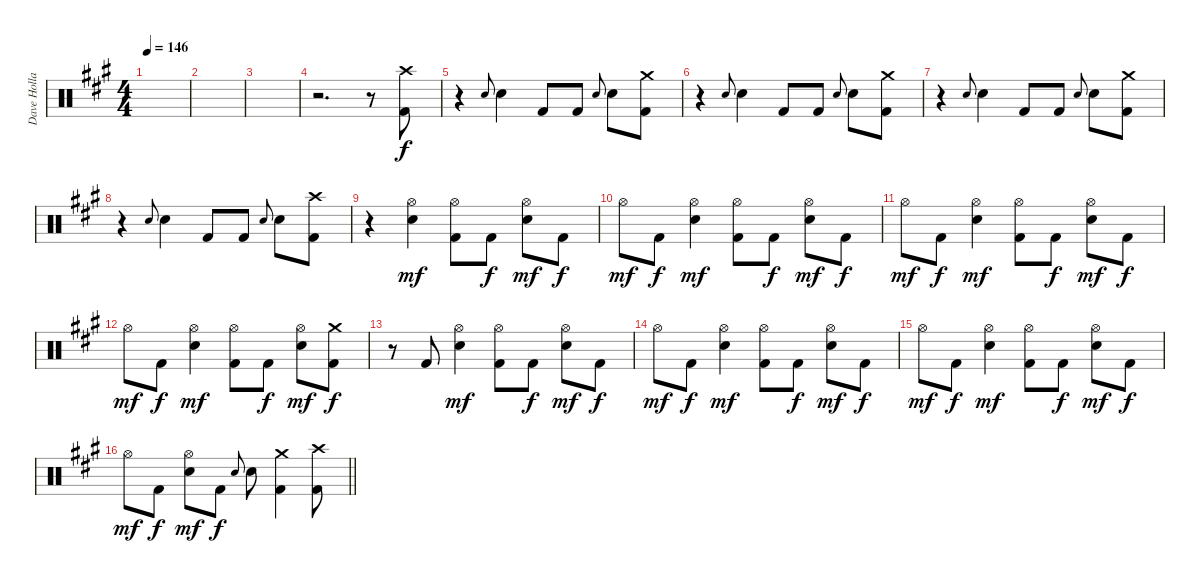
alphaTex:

\track ("Dave Holland" "Dave Holla") {instrument percussion}
\staff {score}
\articulation defaults
\ts (4 4)
\tempo 146
\clef neutral
\ks a
|
|
|
r.2{d} r.8 ("Crash high (hit)" "Kick (hit) 2").8 |
r.4 "Electric Snare (hit)".8{gr onbeat} "Electric Snare (hit)".4 "Kick (hit) 2".8 "Kick (hit) 2".8 "Electric Snare (hit)".8{gr onbeat} "Electric Snare (hit)".8 ("Crash medium (hit)" "Kick (hit) 2").8 |
r.4 "Electric Snare (hit)".8{gr onbeat} "Electric Snare (hit)".4 "Kick (hit) 2".8 "Kick (hit) 2".8 "Electric Snare (hit)".8{gr onbeat} "Electric Snare (hit)".8 ("Crash medium (hit)" "Kick (hit) 2").8 |
r.4 "Electric Snare (hit)".8{gr onbeat} "Electric Snare (hit)".4 "Kick (hit) 2".8 "Kick (hit) 2".8 "Electric Snare (hit)".8{gr onbeat} "Electric Snare (hit)".8 ("Crash medium (hit)" "Kick (hit) 2").8 |
r.4 "Electric Snare (hit)".8{gr onbeat} "Electric Snare (hit)".4 "Kick (hit) 2".8 "Kick (hit) 2".8 "Electric Snare (hit)".8{gr onbeat} "Electric Snare (hit)".8 ("Crash high (hit)" "Kick (hit) 2").8 |
r.4 ("Hi-Hat (open)" "Electric Snare (hit)").4{dy mf} ("Hi-Hat (open)" "Kick (hit) 2").8 "Kick (hit) 2".8{dy f} ("Hi-Hat (open)" "Electric Snare (hit)").8{dy mf} "Kick (hit) 2".8{dy f} |
"Hi-Hat (open)".8{dy mf} "Kick (hit) 2".8{dy f} ("Hi-Hat (open)" "Electric Snare (hit)").4{dy mf} ("Hi-Hat (open)" "Kick (hit) 2").8 "Kick (hit) 2".8{dy f} ("Hi-Hat (open)" "Electric Snare (hit)").8{dy mf} "Kick (hit) 2".8{dy f} |
"Hi-Hat (open)".8{dy mf} "Kick (hit) 2".8{dy f} ("Hi-Hat (open)" "Electric Snare (hit)").4{dy mf} ("Hi-Hat (open)" "Kick (hit) 2").8 "Kick (hit) 2".8{dy f} ("Hi-Hat (open)" "Electric Snare (hit)").8{dy mf} "Kick (hit) 2".8{dy f} |
"Hi-Hat (open)".8{dy mf} "Kick (hit) 2".8{dy f} ("Hi-Hat (open)" "Electric Snare (hit)").4{dy mf} ("Hi-Hat (open)" "Kick (hit) 2").8 "Kick (hit) 2".8{dy f} ("Hi-Hat (open)" "Electric Snare (hit)").8{dy mf} ("Crash medium (hit)" "Kick (hit) 2").8{dy f} |
r.8 "Kick (hit) 2".8 ("Hi-Hat (open)" "Electric Snare (hit)").4{dy mf} ("Hi-Hat (open)" "Kick (hit) 2").8 "Kick (hit) 2".8{dy f} ("Hi-Hat (open)" "Electric Snare (hit)").8{dy mf} "Kick (hit) 2".8{dy f} |
"Hi-Hat (open)".8{dy mf} "Kick (hit) 2".8{dy f} ("Hi-Hat (open)" "Electric Snare (hit)").4{dy mf} ("Hi-Hat (open)" "Kick (hit) 2").8 "Kick (hit) 2".8{dy f} ("Hi-Hat (open)" "Electric Snare (hit)").8{dy mf} "Kick (hit) 2".8{dy f} |
"Hi-Hat (open)".8{dy mf} "Kick (hit) 2".8{dy f} ("Hi-Hat (open)" "Electric Snare (hit)").4{dy mf} ("Hi-Hat (open)" "Kick (hit) 2").8 "Kick (hit) 2".8{dy f} ("Hi-Hat (open)" "Electric Snare (hit)").8{dy mf} "Kick (hit) 2".8{dy f} |
\barLineRight lightlight "Hi-Hat (open)".8{dy mf} "Kick (hit) 2".8{dy f}
("Hi-Hat (open)" "Electric Snare (hit)").8{dy mf} "Kick (hit) 2".8{dy f} "Electric Snare (hit)".8{gr onbeat} "Electric Snare (hit)".8 ("Crash medium (hit)" "Kick (hit) 2").4 ("Crash high (hit)" "Kick (hit) 2").8
